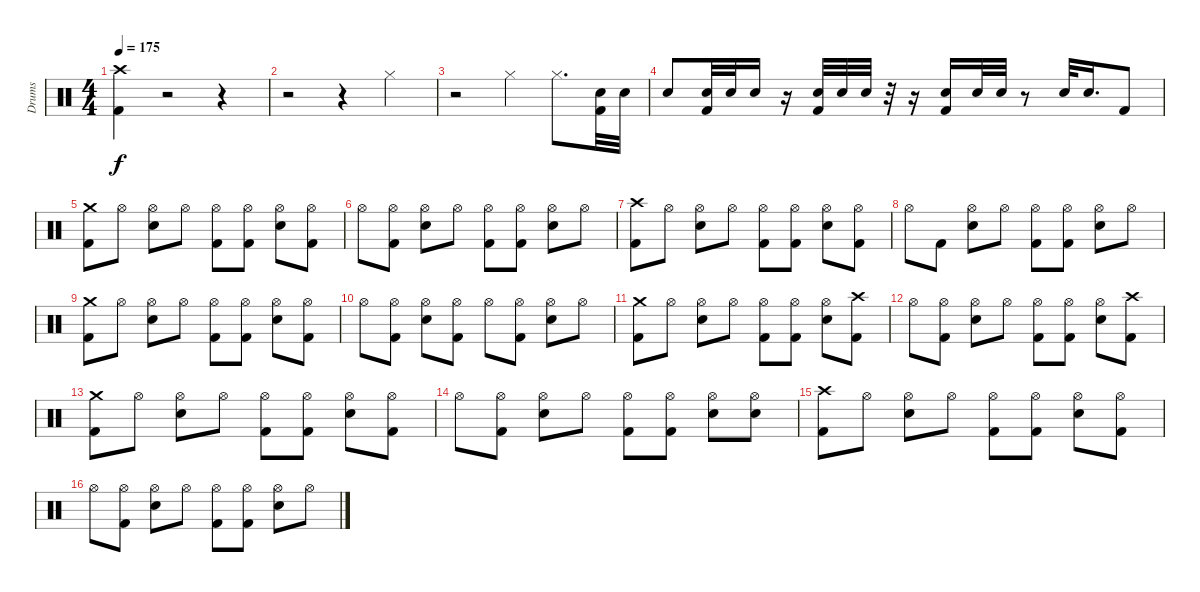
\track ("Drums" "Drums") {instrument percussion}
\staff {score}
\articulation defaults
\ts (4 4)
\tempo 175
\clef neutral
\ks c
("Kick (hit) 2" "Crash high (hit)").4{dy f} r.2 r.4 |
r.2 r.4 "Hi-Hat (closed)".4 |
r.2 "Hi-Hat (closed)".4 "Hi-Hat (closed)".8{d} ("Kick (hit) 2" "Snare (hit) 2").32 "Snare (hit) 2".32 |
"Snare (hit) 2".8 ("Kick (hit) 2" "Snare (hit) 2").32 "Snare (hit) 2".32 "Snare (hit) 2".16 r.16 ("Kick (hit) 2" "Snare (hit) 2").32 "Snare (hit) 2".32 "Snare (hit) 2".32 r.32 r.16 ("Kick (hit) 2" "Snare (hit) 2").16 "Snare (hit) 2".32 "Snare (hit) 2".32 r.8 "Snare (hit) 2".32 "Snare (hit) 2".16{d} "Kick (hit) 2".8 |
("Kick (hit) 2" "Crash medium (hit)").8 "Hi-Hat (open)".8 ("Snare (hit) 2" "Hi-Hat (open)").8 "Hi-Hat (open)".8 ("Kick (hit) 2" "Hi-Hat (open)").8 ("Kick (hit) 2" "Hi-Hat (open)").8 ("Snare (hit) 2" "Hi-Hat (open)").8 ("Kick (hit) 2" "Hi-Hat (open)").8 |
"Hi-Hat (open)".8 ("Kick (hit) 2" "Hi-Hat (open)").8 ("Snare (hit) 2" "Hi-Hat (open)").8 "Hi-Hat (open)".8 ("Kick (hit) 2" "Hi-Hat (open)").8 ("Kick (hit) 2" "Hi-Hat (open)").8 ("Snare (hit) 2" "Hi-Hat (open)").8 "Hi-Hat (open)".8 |
("Kick (hit) 2" "Crash high (hit)").8 "Hi-Hat (open)".8 ("Snare (hit) 2" "Hi-Hat (open)").8 "Hi-Hat (open)".8 ("Kick (hit) 2" "Hi-Hat (open)").8 ("Kick (hit) 2" "Hi-Hat (open)").8 ("Snare (hit) 2" "Hi-Hat (open)").8 ("Kick (hit) 2" "Hi-Hat (open)").8 |
"Hi-Hat (open)".8 "Kick (hit) 2".8 ("Snare (hit) 2" "Hi-Hat (open)").8 "Hi-Hat (open)".8 ("Kick (hit) 2" "Hi-Hat (open)").8 ("Kick (hit) 2" "Hi-Hat (open)").8 ("Snare (hit) 2" "Hi-Hat (open)").8 "Hi-Hat (open)".8 |
("Kick (hit) 2" "Crash medium (hit)").8 "Hi-Hat (open)".8 ("Snare (hit) 2" "Hi-Hat (open)").8 "Hi-Hat (open)".8 ("Kick (hit) 2" "Hi-Hat (open)").8 ("Kick (hit) 2" "Hi-Hat (open)").8 ("Snare (hit) 2" "Hi-Hat (open)").8 ("Kick (hit) 2" "Hi-Hat (open)").8 |
"Hi-Hat (open)".8 ("Kick (hit) 2" "Hi-Hat (open)").8 ("Snare (hit) 2" "Hi-Hat (open)").8 ("Kick (hit) 2" "Hi-Hat (open)").8 "Hi-Hat (open)".8 ("Kick (hit) 2" "Hi-Hat (open)").8 ("Snare (hit) 2" "Hi-Hat (open)").8 "Hi-Hat (open)".8 |
("Kick (hit) 2" "Crash medium (hit)").8 "Hi-Hat (open)".8 ("Snare (hit) 2" "Hi-Hat (open)").8 "Hi-Hat (open)".8 ("Kick (hit) 2" "Hi-Hat (open)").8 ("Kick (hit) 2" "Hi-Hat (open)").8 ("Snare (hit) 2" "Hi-Hat (open)").8 ("Kick (hit) 2" "Crash high (hit)").8 |
"Hi-Hat (open)".8 ("Kick (hit) 2" "Hi-Hat (open)").8 ("Snare (hit) 2" "Hi-Hat (open)").8 "Hi-Hat (open)".8 ("Kick (hit) 2" "Hi-Hat (open)").8 ("Kick (hit) 2" "Hi-Hat (open)").8 ("Snare (hit) 2" "Hi-Hat (open)").8 ("Kick (hit) 2" "Crash high (hit)").8 |
("Kick (hit) 2" "Crash medium (hit)").8 "Hi-Hat (open)".8 ("Snare (hit) 2" "Hi-Hat (open)").8 "Hi-Hat (open)".8 ("Kick (hit) 2" "Hi-Hat (open)").8 ("Kick (hit) 2" "Hi-Hat (open)").8 ("Snare (hit) 2" "Hi-Hat (open)").8 ("Kick (hit) 2" "Hi-Hat (open)").8 |
"Hi-Hat (open)".8 ("Kick (hit) 2" "Hi-Hat (open)").8 ("Snare (hit) 2" "Hi-Hat (open)").8 "Hi-Hat (open)".8 ("Kick (hit) 2" "Hi-Hat (open)").8 ("Kick (hit) 2" "Hi-Hat (open)").8 ("Snare (hit) 2" "Hi-Hat (open)").8 ("Snare (hit) 2" "Hi-Hat (open)").8 |
("Kick (hit) 2" "Crash high (hit)").8 "Hi-Hat (open)".8 ("Snare (hit) 2" "Hi-Hat (open)").8 "Hi-Hat (open)".8 ("Kick (hit) 2" "Hi-Hat (open)").8 ("Kick (hit) 2" "Hi-Hat (open)").8 ("Snare (hit) 2" "Hi-Hat (open)").8 ("Kick (hit) 2" "Hi-Hat (open)").8 |
"Hi-Hat (open)".8 ("Kick (hit) 2" "Hi-Hat (open)").8 ("Snare (hit) 2" "Hi-Hat (open)").8 "Hi-Hat (open)".8 ("Kick (hit) 2" "Hi-Hat (open)").8 ("Kick (hit) 2" "Hi-Hat (open)").8 ("Snare (hit) 2" "Hi-Hat (open)").8 "Hi-Hat (open)".8
